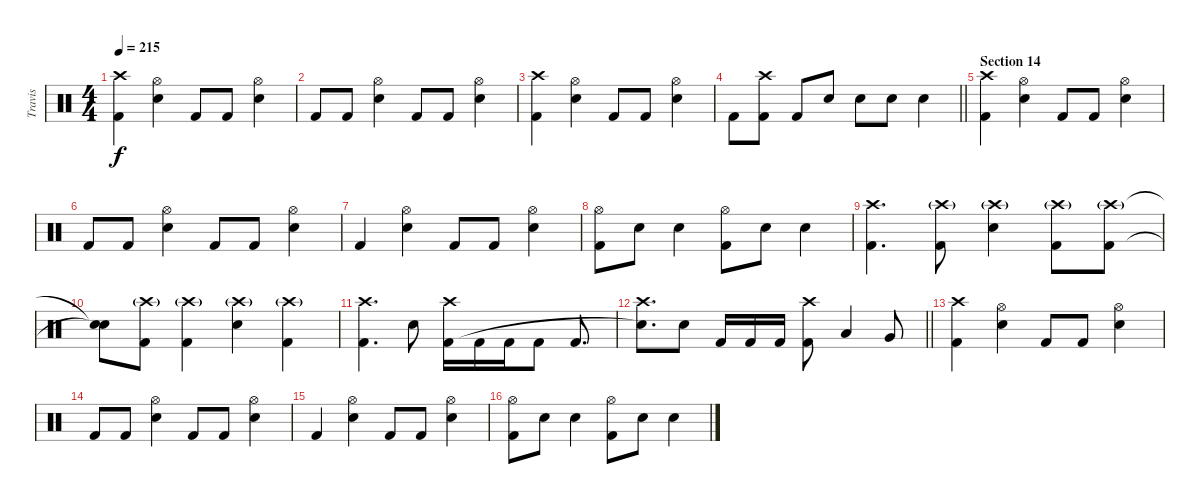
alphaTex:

\track ("Travis" "Travis") {instrument percussion}
\staff {score}
\articulation defaults
\ts (4 4)
\tempo 215
\clef neutral
\ks c
("Crash high (hit)" "Kick (hit) 2").4{dy f} ("Hi-Hat (open)" "Snare (hit) 2").4 "Kick (hit) 2".8 "Kick (hit) 2".8 ("Hi-Hat (open)" "Snare (hit) 2").4 |
"Kick (hit) 2".8 "Kick (hit) 2".8 ("Hi-Hat (open)" "Snare (hit) 2").4 "Kick (hit) 2".8 "Kick (hit) 2".8 ("Hi-Hat (open)" "Snare (hit) 2").4 |
("Crash high (hit)" "Kick (hit) 2").4 ("Hi-Hat (open)" "Snare (hit) 2").4 "Kick (hit) 2".8 "Kick (hit) 2".8 ("Hi-Hat (open)" "Snare (hit) 2").4 |
\barLineRight lightlight "Kick (hit) 2".8
("Crash high (hit)" "Kick (hit) 2").8 "Kick (hit) 2".8 "Snare (hit) 2".8 "Snare (hit) 2".8 "Snare (hit) 2".8 "Snare (hit) 2".4 |
\section ("" "Section 14")
("Crash high (hit)" "Kick (hit) 2").4 ("Hi-Hat (open)" "Snare (hit) 2").4 "Kick (hit) 2".8 "Kick (hit) 2".8 ("Hi-Hat (open)" "Snare (hit) 2").4 |
"Kick (hit) 2".8 "Kick (hit) 2".8 ("Hi-Hat (open)" "Snare (hit) 2").4 "Kick (hit) 2".8 "Kick (hit) 2".8 ("Hi-Hat (open)" "Snare (hit) 2").4 |
"Kick (hit) 2".4 ("Hi-Hat (open)" "Snare (hit) 2").4 "Kick (hit) 2".8 "Kick (hit) 2".8 ("Hi-Hat (open)" "Snare (hit) 2").4 |
("Hi-Hat (open)" "Kick (hit) 2").8 "Snare (hit) 2".8 "Snare (hit) 2".4 ("Hi-Hat (open)" "Kick (hit) 2").8 "Snare (hit) 2".8 "Snare (hit) 2".4 |
("Crash high (hit)" "Kick (hit) 2").4{d} ("Crash high (hit)"{g} "Kick (hit) 2").8 ("Crash high (hit)"{g} "Snare (hit) 2").4 ("Crash high (hit)"{g} "Kick (hit) 2").8 ("Crash high (hit)"{g} "Kick (hit) 2").8 |
("Snare (hit)"{t} "Snare (hit)"{t}).8 ("Crash high (hit)"{g} "Kick (hit) 2").8 ("Crash high (hit)"{g} "Kick (hit) 2").4 ("Crash high (hit)"{g} "Snare (hit) 2").4 ("Crash high (hit)"{g} "Kick (hit) 2").4 |
("Crash high (hit)" "Kick (hit) 2").4{d} "Snare (hit) 2".8 ("Crash high (hit)" "Kick (hit) 2").16 "Kick (hit) 2".16 "Kick (hit) 2".16 "Kick (hit) 2".8 "Kick (hit) 2".8{d} |
\barLineRight lightlight
("Crash high (hit)" "Snare (hit)"{t}).8{d} "Snare (hit) 2".8 "Kick (hit) 2".16 "Kick (hit) 2".16 "Kick (hit) 2".16 ("Crash high (hit)" "Kick (hit) 2").8 "Low Tom (hit)".4 "Very Low Tom (hit)".8 |
("Crash high (hit)" "Kick (hit) 2").4 ("Hi-Hat (open)" "Snare (hit) 2").4 "Kick (hit) 2".8 "Kick (hit) 2".8 ("Hi-Hat (open)" "Snare (hit) 2").4 |
"Kick (hit) 2".8 "Kick (hit) 2".8 ("Hi-Hat (open)" "Snare (hit) 2").4 "Kick (hit) 2".8 "Kick (hit) 2".8 ("Hi-Hat (open)" "Snare (hit) 2").4 |
"Kick (hit) 2".4 ("Hi-Hat (open)" "Snare (hit) 2").4 "Kick (hit) 2".8 "Kick (hit) 2".8 ("Hi-Hat (open)" "Snare (hit) 2").4 |
("Hi-Hat (open)" "Kick (hit) 2").8 "Snare (hit) 2".8 "Snare (hit) 2".4 ("Hi-Hat (open)" "Kick (hit) 2").8 "Snare (hit) 2".8 "Snare (hit) 2".4
